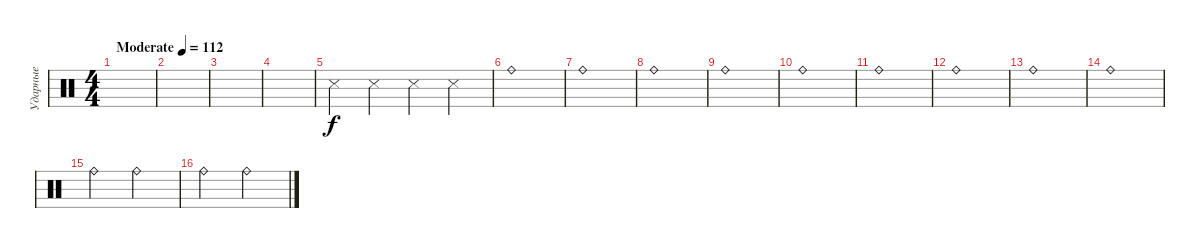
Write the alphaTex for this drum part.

\track ("Ударные" "Ударные") {instrument percussion}
\staff {score}
\articulation defaults
\ts (4 4)
\tempo (112 "Moderate")
\clef neutral
\ks c
|
|
|
|
"Snare (side stick) 3".4 "Snare (side stick) 3".4 "Snare (side stick) 3".4 "Snare (side stick) 3".4 |
"Ride (bell)".1 |
"Ride (bell)".1 |
"Ride (bell)".1 |
"Ride (bell)".1 |
"Ride (bell)".1 |
"Ride (bell)".1 |
"Ride (bell)".1 |
"Ride (bell)".1 |
"Ride (bell)".1 |
"Ride (bell)".2 "Ride (bell)".2 |
"Ride (bell)".2 "Ride (bell)".2
